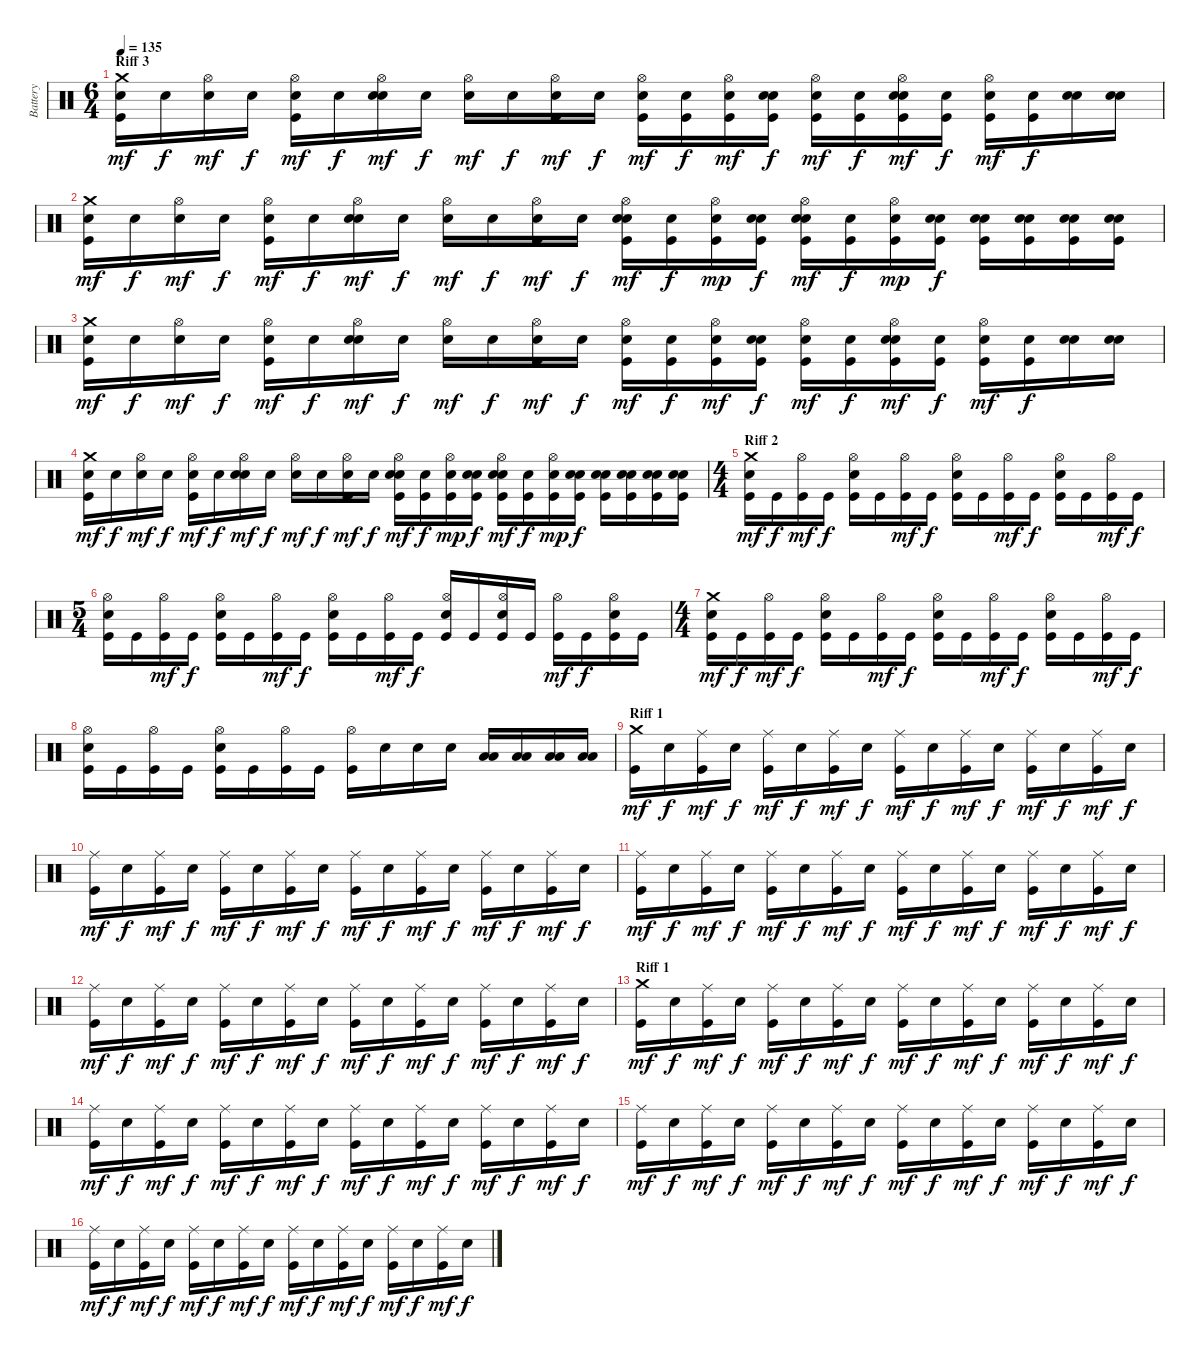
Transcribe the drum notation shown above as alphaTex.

\track ("Battery" "Battery") {instrument percussion}
\staff {score}
\articulation defaults
\ts (6 4)
\section ("" "Riff 3")
\tempo 135
\clef neutral
\ks c
("Snare (hit)"{x} "Crash medium (hit)" "Kick (hit)").16{dy mf} "Snare (hit)"{x}.16{dy f} ("Snare (hit)"{x} "Hi-Hat (open)").16{dy mf} "Snare (hit)"{x}.16{dy f} ("Snare (hit)"{x} "Hi-Hat (open)" "Kick (hit)").16{dy mf} "Snare (hit)"{x}.16{dy f} ("Snare (hit)"{x} "Hi-Hat (open)" "Electric Snare (hit)").16{dy mf} "Snare (hit)"{x}.16{dy f} ("Snare (hit)"{x} "Hi-Hat (open)").16{dy mf} "Snare (hit)"{x}.16{dy f} ("Snare (hit)"{x} "Hi-Hat (open)" "Kick (hit)").16{dy mf} "Snare (hit)"{x}.16{dy f} ("Snare (hit)"{x} "Hi-Hat (open)" "Kick (hit)").16{dy mf} ("Snare (hit)"{x} "Kick (hit)").16{dy f} ("Snare (hit)"{x} "Hi-Hat (open)" "Kick (hit)").16{dy mf} ("Snare (hit)"{x} "Electric Snare (hit)" "Kick (hit)").16{dy f} ("Snare (hit)"{x} "Hi-Hat (open)" "Kick (hit)").16{dy mf} ("Snare (hit)"{x} "Kick (hit)").16{dy f} ("Snare (hit)"{x} "Hi-Hat (open)" "Electric Snare (hit)" "Kick (hit)").16{dy mf} ("Snare (hit)"{x} "Kick (hit)").16{dy f} ("Snare (hit)"{x} "Hi-Hat (open)" "Kick (hit)").16{dy mf} ("Snare (hit)"{x} "Kick (hit)").16{dy f} ("Snare (hit)"{x} "Electric Snare (hit)").16 ("Snare (hit)"{x} "Electric Snare (hit)").16 |
("Snare (hit)"{x} "Crash medium (hit)" "Kick (hit)").16{dy mf} "Snare (hit)"{x}.16{dy f} ("Snare (hit)"{x} "Hi-Hat (open)").16{dy mf} "Snare (hit)"{x}.16{dy f} ("Snare (hit)"{x} "Hi-Hat (open)" "Kick (hit)").16{dy mf} "Snare (hit)"{x}.16{dy f} ("Snare (hit)"{x} "Hi-Hat (open)" "Electric Snare (hit)").16{dy mf} "Snare (hit)"{x}.16{dy f} ("Snare (hit)"{x} "Hi-Hat (open)").16{dy mf} "Snare (hit)"{x}.16{dy f} ("Snare (hit)"{x} "Hi-Hat (open)" "Kick (hit)").16{dy mf} "Snare (hit)"{x}.16{dy f} ("Snare (hit)"{x} "Hi-Hat (open)" "Electric Snare (hit)" "Kick (hit)").16{dy mf} ("Snare (hit)"{x} "Kick (hit)").16{dy f} ("Snare (hit)"{x} "Hi-Hat (open)" "Kick (hit)").16{dy mp} ("Snare (hit)"{x} "Electric Snare (hit)" "Kick (hit)").16{dy f} ("Snare (hit)"{x} "Hi-Hat (open)" "Electric Snare (hit)" "Kick (hit)").16{dy mf} ("Snare (hit)"{x} "Kick (hit)").16{dy f} ("Snare (hit)"{x} "Hi-Hat (open)" "Kick (hit)").16{dy mp} ("Snare (hit)"{x} "Electric Snare (hit)" "Kick (hit)").16{dy f} ("Snare (hit)"{x} "Electric Snare (hit)" "Kick (hit)").16 ("Snare (hit)"{x} "Electric Snare (hit)" "Kick (hit)").16 ("Snare (hit)"{x} "Electric Snare (hit)" "Kick (hit)").16 ("Snare (hit)"{x} "Electric Snare (hit)" "Kick (hit)").16 |
("Snare (hit)"{x} "Crash medium (hit)" "Kick (hit)").16{dy mf} "Snare (hit)"{x}.16{dy f} ("Snare (hit)"{x} "Hi-Hat (open)").16{dy mf} "Snare (hit)"{x}.16{dy f} ("Snare (hit)"{x} "Hi-Hat (open)" "Kick (hit)").16{dy mf} "Snare (hit)"{x}.16{dy f} ("Snare (hit)"{x} "Hi-Hat (open)" "Electric Snare (hit)").16{dy mf} "Snare (hit)"{x}.16{dy f} ("Snare (hit)"{x} "Hi-Hat (open)").16{dy mf} "Snare (hit)"{x}.16{dy f} ("Snare (hit)"{x} "Hi-Hat (open)" "Kick (hit)").16{dy mf} "Snare (hit)"{x}.16{dy f} ("Snare (hit)"{x} "Hi-Hat (open)" "Kick (hit)").16{dy mf} ("Snare (hit)"{x} "Kick (hit)").16{dy f} ("Snare (hit)"{x} "Hi-Hat (open)" "Kick (hit)").16{dy mf} ("Snare (hit)"{x} "Electric Snare (hit)" "Kick (hit)").16{dy f} ("Snare (hit)"{x} "Hi-Hat (open)" "Kick (hit)").16{dy mf} ("Snare (hit)"{x} "Kick (hit)").16{dy f} ("Snare (hit)"{x} "Hi-Hat (open)" "Electric Snare (hit)" "Kick (hit)").16{dy mf} ("Snare (hit)"{x} "Kick (hit)").16{dy f} ("Snare (hit)"{x} "Hi-Hat (open)" "Kick (hit)").16{dy mf} ("Snare (hit)"{x} "Kick (hit)").16{dy f} ("Snare (hit)"{x} "Electric Snare (hit)").16 ("Snare (hit)"{x} "Electric Snare (hit)").16 |
("Snare (hit)"{x} "Crash medium (hit)" "Kick (hit)").16{dy mf} "Snare (hit)"{x}.16{dy f} ("Snare (hit)"{x} "Hi-Hat (open)").16{dy mf} "Snare (hit)"{x}.16{dy f} ("Snare (hit)"{x} "Hi-Hat (open)" "Kick (hit)").16{dy mf} "Snare (hit)"{x}.16{dy f} ("Snare (hit)"{x} "Hi-Hat (open)" "Electric Snare (hit)").16{dy mf} "Snare (hit)"{x}.16{dy f} ("Snare (hit)"{x} "Hi-Hat (open)").16{dy mf} "Snare (hit)"{x}.16{dy f} ("Snare (hit)"{x} "Hi-Hat (open)" "Kick (hit)").16{dy mf} "Snare (hit)"{x}.16{dy f} ("Snare (hit)"{x} "Hi-Hat (open)" "Electric Snare (hit)" "Kick (hit)").16{dy mf} ("Snare (hit)"{x} "Kick (hit)").16{dy f} ("Snare (hit)"{x} "Hi-Hat (open)" "Kick (hit)").16{dy mp} ("Snare (hit)"{x} "Electric Snare (hit)" "Kick (hit)").16{dy f} ("Snare (hit)"{x} "Hi-Hat (open)" "Electric Snare (hit)" "Kick (hit)").16{dy mf} ("Snare (hit)"{x} "Kick (hit)").16{dy f} ("Snare (hit)"{x} "Hi-Hat (open)" "Kick (hit)").16{dy mp} ("Snare (hit)"{x} "Electric Snare (hit)" "Kick (hit)").16{dy f} ("Snare (hit)"{x} "Electric Snare (hit)" "Kick (hit)").16 ("Snare (hit)"{x} "Electric Snare (hit)" "Kick (hit)").16 ("Snare (hit)"{x} "Electric Snare (hit)" "Kick (hit)").16 ("Snare (hit)"{x} "Electric Snare (hit)" "Kick (hit)").16 |
\ts (4 4)
\section ("" "Riff 2")
("Crash medium (hit)" "Electric Snare (hit)" "Kick (hit)").16{dy mf} "Kick (hit)".16{dy f} ("Hi-Hat (open)" "Kick (hit)").16{dy mf} "Kick (hit)".16{dy f} ("Hi-Hat (open)" "Electric Snare (hit)" "Kick (hit)").16 "Kick (hit)".16 ("Hi-Hat (open)" "Kick (hit)").16{dy mf} "Kick (hit)".16{dy f} ("Hi-Hat (open)" "Electric Snare (hit)" "Kick (hit)").16 "Kick (hit)".16 ("Hi-Hat (open)" "Kick (hit)").16{dy mf} "Kick (hit)".16{dy f} ("Hi-Hat (open)" "Electric Snare (hit)" "Kick (hit)").16 "Kick (hit)".16 ("Hi-Hat (open)" "Kick (hit)").16{dy mf} "Kick (hit)".16{dy f} |
\ts (5 4)
("Hi-Hat (open)" "Electric Snare (hit)" "Kick (hit)").16 "Kick (hit)".16 ("Hi-Hat (open)" "Kick (hit)").16{dy mf} "Kick (hit)".16{dy f} ("Hi-Hat (open)" "Electric Snare (hit)" "Kick (hit)").16 "Kick (hit)".16 ("Hi-Hat (open)" "Kick (hit)").16{dy mf} "Kick (hit)".16{dy f} ("Hi-Hat (open)" "Electric Snare (hit)" "Kick (hit)").16 "Kick (hit)".16 ("Hi-Hat (open)" "Kick (hit)").16{dy mf} "Kick (hit)".16{dy f} ("Hi-Hat (open)" "Electric Snare (hit)" "Kick (hit)").16 "Kick (hit)".16 ("Hi-Hat (open)" "Electric Snare (hit)" "Kick (hit)").16 "Kick (hit)".16 ("Hi-Hat (open)" "Kick (hit)").16{dy mf} "Kick (hit)".16{dy f} ("Hi-Hat (open)" "Electric Snare (hit)" "Kick (hit)").16 "Kick (hit)".16 |
\ts (4 4)
("Crash medium (hit)" "Electric Snare (hit)" "Kick (hit)").16{dy mf} "Kick (hit)".16{dy f} ("Hi-Hat (open)" "Kick (hit)").16{dy mf} "Kick (hit)".16{dy f} ("Hi-Hat (open)" "Electric Snare (hit)" "Kick (hit)").16 "Kick (hit)".16 ("Hi-Hat (open)" "Kick (hit)").16{dy mf} "Kick (hit)".16{dy f} ("Hi-Hat (open)" "Electric Snare (hit)" "Kick (hit)").16 "Kick (hit)".16 ("Hi-Hat (open)" "Kick (hit)").16{dy mf} "Kick (hit)".16{dy f} ("Hi-Hat (open)" "Electric Snare (hit)" "Kick (hit)").16 "Kick (hit)".16 ("Hi-Hat (open)" "Kick (hit)").16{dy mf} "Kick (hit)".16{dy f} |
("Hi-Hat (open)" "Electric Snare (hit)" "Kick (hit)").16 "Kick (hit)".16 ("Hi-Hat (open)" "Kick (hit)").16 "Kick (hit)".16 ("Hi-Hat (open)" "Electric Snare (hit)" "Kick (hit)").16 "Kick (hit)".16 ("Hi-Hat (open)" "Kick (hit)").16 "Kick (hit)".16 ("Hi-Hat (open)" "Kick (hit)").16 "Electric Snare (hit)".16 "Electric Snare (hit)".16 "Electric Snare (hit)".16 ("Low Tom (hit)" "Low Tom (hit)").16 ("Low Tom (hit)" "Low Tom (hit)").16 ("Low Tom (hit)" "Low Tom (hit)").16 ("Low Tom (hit)" "Low Tom (hit)").16 |
\section ("" "Riff 1")
("Crash medium (hit)" "Kick (hit)").16{dy mf} "Electric Snare (hit)".16{dy f} ("Ride (middle)" "Kick (hit)").16{dy mf} "Electric Snare (hit)".16{dy f} ("Ride (middle)" "Kick (hit)").16{dy mf} "Electric Snare (hit)".16{dy f} ("Ride (middle)" "Kick (hit)").16{dy mf} "Electric Snare (hit)".16{dy f} ("Ride (middle)" "Kick (hit)").16{dy mf} "Electric Snare (hit)".16{dy f} ("Ride (middle)" "Kick (hit)").16{dy mf} "Electric Snare (hit)".16{dy f} ("Ride (middle)" "Kick (hit)").16{dy mf} "Electric Snare (hit)".16{dy f} ("Ride (middle)" "Kick (hit)").16{dy mf} "Electric Snare (hit)".16{dy f} |
("Ride (middle)" "Kick (hit)").16{dy mf} "Electric Snare (hit)".16{dy f} ("Ride (middle)" "Kick (hit)").16{dy mf} "Electric Snare (hit)".16{dy f} ("Ride (middle)" "Kick (hit)").16{dy mf} "Electric Snare (hit)".16{dy f} ("Ride (middle)" "Kick (hit)").16{dy mf} "Electric Snare (hit)".16{dy f} ("Ride (middle)" "Kick (hit)").16{dy mf} "Electric Snare (hit)".16{dy f} ("Ride (middle)" "Kick (hit)").16{dy mf} "Electric Snare (hit)".16{dy f} ("Ride (middle)" "Kick (hit)").16{dy mf} "Electric Snare (hit)".16{dy f} ("Ride (middle)" "Kick (hit)").16{dy mf} "Electric Snare (hit)".16{dy f} |
("Ride (middle)" "Kick (hit)").16{dy mf} "Electric Snare (hit)".16{dy f} ("Ride (middle)" "Kick (hit)").16{dy mf} "Electric Snare (hit)".16{dy f} ("Ride (middle)" "Kick (hit)").16{dy mf} "Electric Snare (hit)".16{dy f} ("Ride (middle)" "Kick (hit)").16{dy mf} "Electric Snare (hit)".16{dy f} ("Ride (middle)" "Kick (hit)").16{dy mf} "Electric Snare (hit)".16{dy f} ("Ride (middle)" "Kick (hit)").16{dy mf} "Electric Snare (hit)".16{dy f} ("Ride (middle)" "Kick (hit)").16{dy mf} "Electric Snare (hit)".16{dy f} ("Ride (middle)" "Kick (hit)").16{dy mf} "Electric Snare (hit)".16{dy f} |
("Ride (middle)" "Kick (hit)").16{dy mf} "Electric Snare (hit)".16{dy f} ("Ride (middle)" "Kick (hit)").16{dy mf} "Electric Snare (hit)".16{dy f} ("Ride (middle)" "Kick (hit)").16{dy mf} "Electric Snare (hit)".16{dy f} ("Ride (middle)" "Kick (hit)").16{dy mf} "Electric Snare (hit)".16{dy f} ("Ride (middle)" "Kick (hit)").16{dy mf} "Electric Snare (hit)".16{dy f} ("Ride (middle)" "Kick (hit)").16{dy mf} "Electric Snare (hit)".16{dy f} ("Ride (middle)" "Kick (hit)").16{dy mf} "Electric Snare (hit)".16{dy f} ("Ride (middle)" "Kick (hit)").16{dy mf} "Electric Snare (hit)".16{dy f} |
\section ("" "Riff 1")
("Crash medium (hit)" "Kick (hit)").16{dy mf} "Electric Snare (hit)".16{dy f} ("Ride (middle)" "Kick (hit)").16{dy mf} "Electric Snare (hit)".16{dy f} ("Ride (middle)" "Kick (hit)").16{dy mf} "Electric Snare (hit)".16{dy f} ("Ride (middle)" "Kick (hit)").16{dy mf} "Electric Snare (hit)".16{dy f} ("Ride (middle)" "Kick (hit)").16{dy mf} "Electric Snare (hit)".16{dy f} ("Ride (middle)" "Kick (hit)").16{dy mf} "Electric Snare (hit)".16{dy f} ("Ride (middle)" "Kick (hit)").16{dy mf} "Electric Snare (hit)".16{dy f} ("Ride (middle)" "Kick (hit)").16{dy mf} "Electric Snare (hit)".16{dy f} |
("Ride (middle)" "Kick (hit)").16{dy mf} "Electric Snare (hit)".16{dy f} ("Ride (middle)" "Kick (hit)").16{dy mf} "Electric Snare (hit)".16{dy f} ("Ride (middle)" "Kick (hit)").16{dy mf} "Electric Snare (hit)".16{dy f} ("Ride (middle)" "Kick (hit)").16{dy mf} "Electric Snare (hit)".16{dy f} ("Ride (middle)" "Kick (hit)").16{dy mf} "Electric Snare (hit)".16{dy f} ("Ride (middle)" "Kick (hit)").16{dy mf} "Electric Snare (hit)".16{dy f} ("Ride (middle)" "Kick (hit)").16{dy mf} "Electric Snare (hit)".16{dy f} ("Ride (middle)" "Kick (hit)").16{dy mf} "Electric Snare (hit)".16{dy f} |
("Ride (middle)" "Kick (hit)").16{dy mf} "Electric Snare (hit)".16{dy f} ("Ride (middle)" "Kick (hit)").16{dy mf} "Electric Snare (hit)".16{dy f} ("Ride (middle)" "Kick (hit)").16{dy mf} "Electric Snare (hit)".16{dy f} ("Ride (middle)" "Kick (hit)").16{dy mf} "Electric Snare (hit)".16{dy f} ("Ride (middle)" "Kick (hit)").16{dy mf} "Electric Snare (hit)".16{dy f} ("Ride (middle)" "Kick (hit)").16{dy mf} "Electric Snare (hit)".16{dy f} ("Ride (middle)" "Kick (hit)").16{dy mf} "Electric Snare (hit)".16{dy f} ("Ride (middle)" "Kick (hit)").16{dy mf} "Electric Snare (hit)".16{dy f} |
("Ride (middle)" "Kick (hit)").16{dy mf} "Electric Snare (hit)".16{dy f} ("Ride (middle)" "Kick (hit)").16{dy mf} "Electric Snare (hit)".16{dy f} ("Ride (middle)" "Kick (hit)").16{dy mf} "Electric Snare (hit)".16{dy f} ("Ride (middle)" "Kick (hit)").16{dy mf} "Electric Snare (hit)".16{dy f} ("Ride (middle)" "Kick (hit)").16{dy mf} "Electric Snare (hit)".16{dy f} ("Ride (middle)" "Kick (hit)").16{dy mf} "Electric Snare (hit)".16{dy f} ("Ride (middle)" "Kick (hit)").16{dy mf} "Electric Snare (hit)".16{dy f} ("Ride (middle)" "Kick (hit)").16{dy mf} "Electric Snare (hit)".16{dy f}
